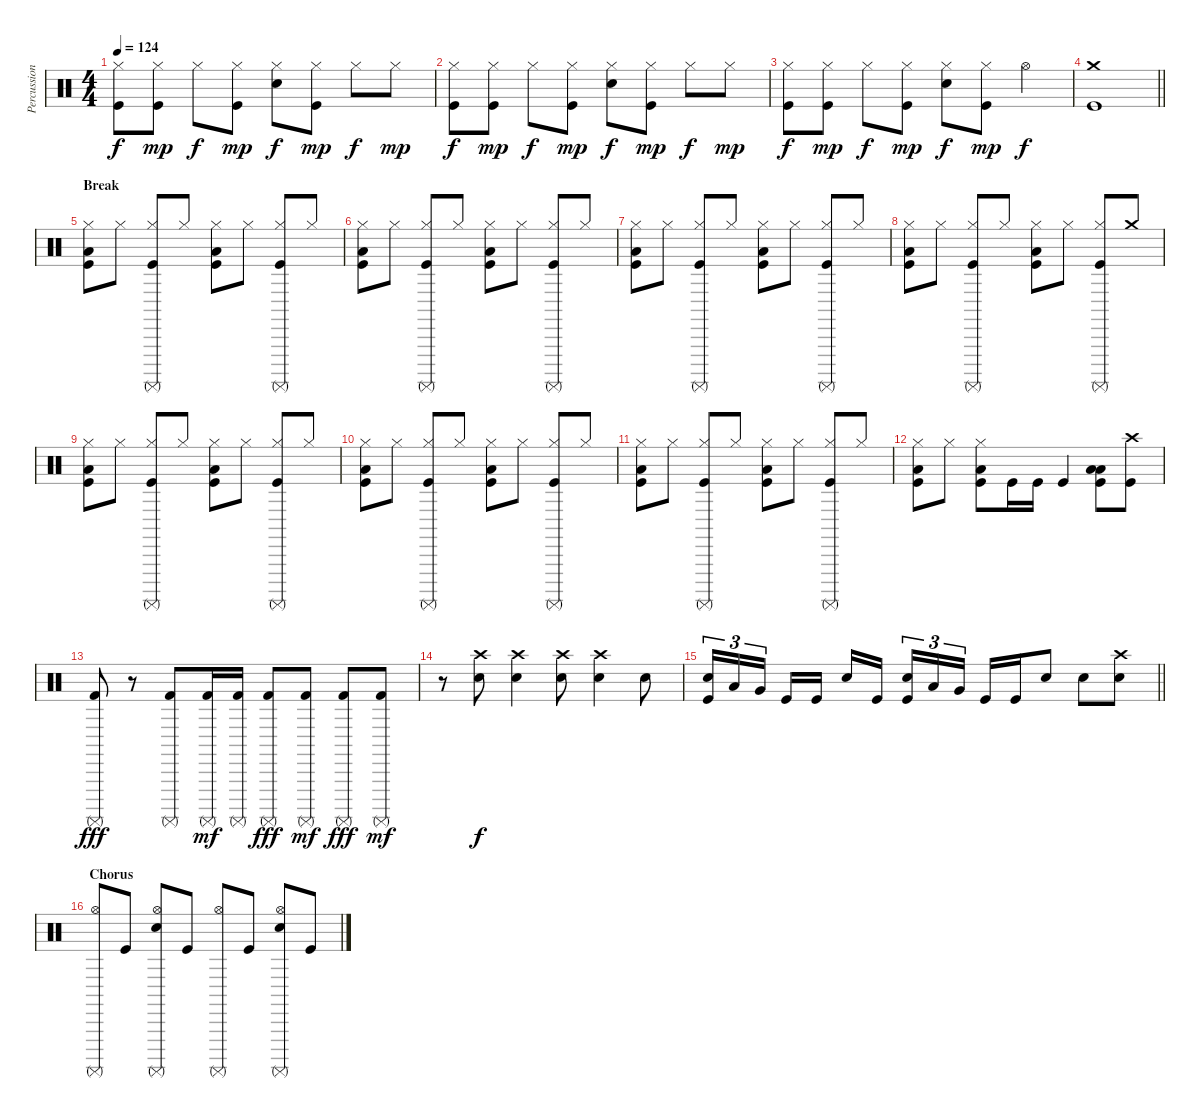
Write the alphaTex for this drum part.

\track ("Percussion" "Percussion") {instrument percussion}
\staff {score}
\articulation defaults
\ts (4 4)
\tempo 124
\clef neutral
\ks c
("Hi-Hat (closed)" "Kick (hit)").8{dy f} ("Hi-Hat (closed)" "Kick (hit)").8{dy mp} "Hi-Hat (closed)".8{dy f} ("Hi-Hat (closed)" "Kick (hit)").8{dy mp} ("Hi-Hat (closed)" "Snare (hit) 2").8{dy f} ("Hi-Hat (closed)" "Kick (hit)").8{dy mp} "Hi-Hat (closed)".8{dy f} "Hi-Hat (closed)".8{dy mp} |
("Hi-Hat (closed)" "Kick (hit)").8{dy f} ("Hi-Hat (closed)" "Kick (hit)").8{dy mp} "Hi-Hat (closed)".8{dy f} ("Hi-Hat (closed)" "Kick (hit)").8{dy mp} ("Hi-Hat (closed)" "Snare (hit) 2").8{dy f} ("Hi-Hat (closed)" "Kick (hit)").8{dy mp} "Hi-Hat (closed)".8{dy f} "Hi-Hat (closed)".8{dy mp} |
("Hi-Hat (closed)" "Kick (hit)").8{dy f} ("Hi-Hat (closed)" "Kick (hit)").8{dy mp} "Hi-Hat (closed)".8{dy f} ("Hi-Hat (closed)" "Kick (hit)").8{dy mp} ("Hi-Hat (closed)" "Snare (hit) 2").8{dy f} ("Hi-Hat (closed)" "Kick (hit)").8{dy mp} "Hi-Hat (open)".4{dy f} |
\barLineRight lightlight
("Crash medium (hit)" "Kick (hit)").1 |
\section ("" "Break")
("Hi-Hat (closed)" "Low Tom (hit)" "Kick (hit)").8 "Hi-Hat (closed)".8 ("Hi-Hat (closed)" "Surdo (mute)" "Kick (hit)").8 "Hi-Hat (closed)".8 ("Hi-Hat (closed)" "Low Tom (hit)" "Kick (hit)").8 "Hi-Hat (closed)".8 ("Hi-Hat (closed)" "Surdo (mute)" "Kick (hit)").8 "Hi-Hat (closed)".8 |
("Hi-Hat (closed)" "Low Tom (hit)" "Kick (hit)").8 "Hi-Hat (closed)".8 ("Hi-Hat (closed)" "Surdo (mute)" "Kick (hit)").8 "Hi-Hat (closed)".8 ("Hi-Hat (closed)" "Low Tom (hit)" "Kick (hit)").8 "Hi-Hat (closed)".8 ("Hi-Hat (closed)" "Surdo (mute)" "Kick (hit)").8 "Hi-Hat (closed)".8 |
("Hi-Hat (closed)" "Low Tom (hit)" "Kick (hit)").8 "Hi-Hat (closed)".8 ("Hi-Hat (closed)" "Surdo (mute)" "Kick (hit)").8 "Hi-Hat (closed)".8 ("Hi-Hat (closed)" "Low Tom (hit)" "Kick (hit)").8 "Hi-Hat (closed)".8 ("Hi-Hat (closed)" "Surdo (mute)" "Kick (hit)").8 "Hi-Hat (closed)".8 |
("Hi-Hat (closed)" "Low Tom (hit)" "Kick (hit)").8 "Hi-Hat (closed)".8 ("Hi-Hat (closed)" "Surdo (mute)" "Kick (hit)").8 "Hi-Hat (closed)".8 ("Hi-Hat (closed)" "Low Tom (hit)" "Kick (hit)").8 "Hi-Hat (closed)".8 ("Hi-Hat (closed)" "Surdo (mute)" "Kick (hit)").8 "Crash medium (hit)".8 |
("Hi-Hat (closed)" "Low Tom (hit)" "Kick (hit)").8 "Hi-Hat (closed)".8 ("Hi-Hat (closed)" "Surdo (mute)" "Kick (hit)").8 "Hi-Hat (closed)".8 ("Hi-Hat (closed)" "Low Tom (hit)" "Kick (hit)").8 "Hi-Hat (closed)".8 ("Hi-Hat (closed)" "Surdo (mute)" "Kick (hit)").8 "Hi-Hat (closed)".8 |
("Hi-Hat (closed)" "Low Tom (hit)" "Kick (hit)").8 "Hi-Hat (closed)".8 ("Hi-Hat (closed)" "Surdo (mute)" "Kick (hit)").8 "Hi-Hat (closed)".8 ("Hi-Hat (closed)" "Low Tom (hit)" "Kick (hit)").8 "Hi-Hat (closed)".8 ("Hi-Hat (closed)" "Surdo (mute)" "Kick (hit)").8 "Hi-Hat (closed)".8 |
("Hi-Hat (closed)" "Low Tom (hit)" "Kick (hit)").8 "Hi-Hat (closed)".8 ("Hi-Hat (closed)" "Surdo (mute)" "Kick (hit)").8 "Hi-Hat (closed)".8 ("Hi-Hat (closed)" "Low Tom (hit)" "Kick (hit)").8 "Hi-Hat (closed)".8 ("Hi-Hat (closed)" "Surdo (mute)" "Kick (hit)").8 "Hi-Hat (closed)".8 |
("Hi-Hat (closed)" "Low Tom (hit)" "Kick (hit)").8 "Hi-Hat (closed)".8 ("Low Tom (hit)" "Hi-Hat (closed)" "Kick (hit)").8 "Kick (hit)".16 "Kick (hit)".16 "Kick (hit)".4 ("Low Tom (hit)" "Low Floor Tom (hit)" "Kick (hit)").8 ("Crash high (hit)" "Kick (hit)").8 |
("Surdo (mute)" "Kick (hit) 2").8{dy fff} r.8 ("Surdo (mute)" "Kick (hit) 2").8 ("Surdo (mute)" "Kick (hit) 2").16{dy mf} ("Surdo (mute)" "Kick (hit) 2").16 ("Surdo (mute)" "Kick (hit) 2").8{dy fff} ("Surdo (mute)" "Kick (hit) 2").8{dy mf} ("Surdo (mute)" "Kick (hit) 2").8{dy fff} ("Surdo (mute)" "Kick (hit) 2").8{dy mf} |
r.8 ("Crash high (hit)" "Snare (hit) 2").8{dy f} ("Crash high (hit)" "Snare (hit) 2").4 ("Crash high (hit)" "Snare (hit) 2").8 ("Crash high (hit)" "Snare (hit) 2").4 "Snare (hit) 2".8 |
\barLineRight lightlight
("Snare (hit) 2" "Kick (hit)").16{tu (3 2)} "Low Tom (hit)".16{tu (3 2)} "Very Low Tom (hit)".16{tu (3 2) beam splitsecondary} "Kick (hit)".16 "Kick (hit)".16 "Snare (hit) 2".16 "Kick (hit)".16{beam splitsecondary} ("Snare (hit) 2" "Kick (hit)").16{tu (3 2)} "Low Tom (hit)".16{tu (3 2)} "Very Low Tom (hit)".16{tu (3 2)} "Kick (hit)".16 "Kick (hit)".16 "Snare (hit) 2".8 "Snare (hit) 2".8 ("Crash high (hit)" "Snare (hit) 2").8 |
\section ("" "Chorus")
("Hi-Hat (open)" "Surdo (mute)").8 "Kick (hit)".8 ("Hi-Hat (open)" "Snare (hit) 2" "Surdo (mute)").8 "Kick (hit)".8 ("Hi-Hat (open)" "Surdo (mute)").8 "Kick (hit)".8 ("Hi-Hat (open)" "Snare (hit) 2" "Surdo (mute)").8 "Kick (hit)".8
